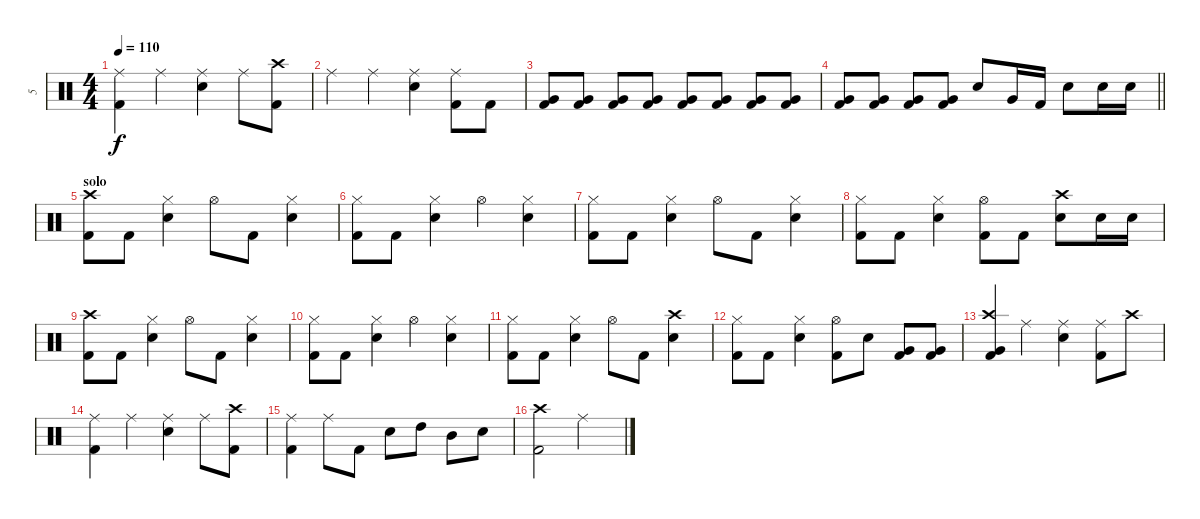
\track ("5" "5") {instrument percussion}
\staff {score}
\articulation defaults
\ts (4 4)
\tempo 110
\clef neutral
\ks c
("Ride (middle)" "Kick (hit) 2").4{dy f} "Ride (middle)".4 ("Ride (middle)" "Electric Snare (hit)").4 "Ride (middle)".8 ("Crash high (hit)" "Kick (hit) 2").8 |
"Ride (middle)".4 "Ride (middle)".4 ("Ride (middle)" "Electric Snare (hit)").4 ("Ride (middle)" "Kick (hit) 2").8 "Kick (hit) 2".8 |
("Very Low Tom (hit)" "Kick (hit) 2").8 ("Very Low Tom (hit)" "Kick (hit) 2").8 ("Very Low Tom (hit)" "Kick (hit) 2").8 ("Very Low Tom (hit)" "Kick (hit) 2").8 ("Very Low Tom (hit)" "Kick (hit) 2").8 ("Very Low Tom (hit)" "Kick (hit) 2").8 ("Very Low Tom (hit)" "Kick (hit) 2").8 ("Very Low Tom (hit)" "Kick (hit) 2").8 |
\barLineRight lightlight
("Very Low Tom (hit)" "Kick (hit) 2").8 ("Very Low Tom (hit)" "Kick (hit) 2").8 ("Very Low Tom (hit)" "Kick (hit) 2").8 ("Very Low Tom (hit)" "Kick (hit) 2").8 "Electric Snare (hit)".8 "Very Low Tom (hit)".16 "Kick (hit) 2".16 "Electric Snare (hit)".8 "Electric Snare (hit)".16 "Electric Snare (hit)".16 |
\section ("" "solo")
("Crash high (hit)" "Kick (hit) 2").8 "Kick (hit) 2".8 ("Hi-Hat (closed)" "Electric Snare (hit)").4 "Hi-Hat (open)".8 "Kick (hit) 2".8 ("Hi-Hat (closed)" "Electric Snare (hit)").4 |
("Hi-Hat (closed)" "Kick (hit) 2").8 "Kick (hit) 2".8 ("Hi-Hat (closed)" "Electric Snare (hit)").4 "Hi-Hat (open)".4 ("Hi-Hat (closed)" "Electric Snare (hit)").4 |
("Hi-Hat (closed)" "Kick (hit) 2").8 "Kick (hit) 2".8 ("Hi-Hat (closed)" "Electric Snare (hit)").4 "Hi-Hat (open)".8 "Kick (hit) 2".8 ("Hi-Hat (closed)" "Electric Snare (hit)").4 |
("Hi-Hat (closed)" "Kick (hit) 2").8 "Kick (hit) 2".8 ("Hi-Hat (closed)" "Electric Snare (hit)").4 ("Hi-Hat (open)" "Kick (hit) 2").8 "Kick (hit) 2".8 ("Crash high (hit)" "Electric Snare (hit)").8 "Electric Snare (hit)".16 "Electric Snare (hit)".16 |
("Crash high (hit)" "Kick (hit) 2").8 "Kick (hit) 2".8 ("Hi-Hat (closed)" "Electric Snare (hit)").4 "Hi-Hat (open)".8 "Kick (hit) 2".8 ("Hi-Hat (closed)" "Electric Snare (hit)").4 |
("Hi-Hat (closed)" "Kick (hit) 2").8 "Kick (hit) 2".8 ("Hi-Hat (closed)" "Electric Snare (hit)").4 "Hi-Hat (open)".4 ("Hi-Hat (closed)" "Electric Snare (hit)").4 |
("Hi-Hat (closed)" "Kick (hit) 2").8 "Kick (hit) 2".8 ("Hi-Hat (closed)" "Electric Snare (hit)").4 "Hi-Hat (open)".8 "Kick (hit) 2".8 ("Crash high (hit)" "Electric Snare (hit)").4 |
("Hi-Hat (closed)" "Kick (hit) 2").8 "Kick (hit) 2".8 ("Hi-Hat (closed)" "Electric Snare (hit)").4 ("Hi-Hat (open)" "Kick (hit) 2").8 "Electric Snare (hit)".8 ("Very Low Tom (hit)" "Kick (hit) 2").8 ("Very Low Tom (hit)" "Kick (hit) 2").8 |
("Crash high (hit)" "Very Low Tom (hit)" "Kick (hit) 2").4 "Ride (middle)".4 ("Ride (middle)" "Electric Snare (hit)").4 ("Ride (middle)" "Kick (hit) 2").8 "Crash high (hit)".8 |
("Ride (middle)" "Kick (hit) 2").4 "Ride (middle)".4 ("Ride (middle)" "Electric Snare (hit)").4 "Ride (middle)".8 ("Crash high (hit)" "Kick (hit) 2").8 |
("Ride (middle)" "Kick (hit) 2").4 "Ride (middle)".8 "Kick (hit) 2".8 "Electric Snare (hit)".8 "High Tom (hit)".8 "Mid Tom (hit)".8 "Electric Snare (hit)".8 |
("Crash high (hit)" "Kick (hit) 2").2 "Ride (middle)".2
